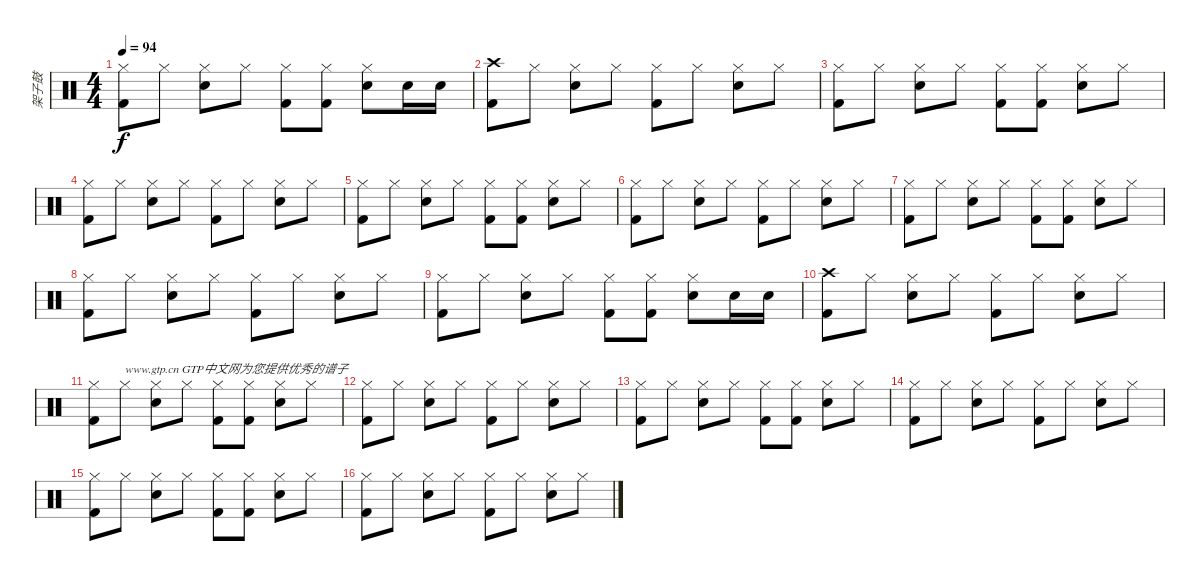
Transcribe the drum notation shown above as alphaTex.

\track ("架子鼓" "架子鼓") {instrument percussion}
\staff {score}
\articulation defaults
\ts (4 4)
\tempo 94
\clef neutral
\ks c
("Kick (hit) 2" "Hi-Hat (closed)").8{dy f} "Hi-Hat (closed)".8 ("Hi-Hat (closed)" "Electric Snare (hit)").8 "Hi-Hat (closed)".8 ("Kick (hit) 2" "Hi-Hat (closed)").8 ("Kick (hit) 2" "Hi-Hat (closed)").8 ("Hi-Hat (closed)" "Electric Snare (hit)").8 "Electric Snare (hit)".16 "Electric Snare (hit)".16 |
("Kick (hit) 2" "Crash high (hit)").8 "Hi-Hat (closed)".8 ("Hi-Hat (closed)" "Electric Snare (hit)").8 "Hi-Hat (closed)".8 ("Kick (hit) 2" "Hi-Hat (closed)").8 "Hi-Hat (closed)".8 ("Hi-Hat (closed)" "Electric Snare (hit)").8 "Hi-Hat (closed)".8 |
("Kick (hit) 2" "Hi-Hat (closed)").8 "Hi-Hat (closed)".8 ("Hi-Hat (closed)" "Electric Snare (hit)").8 "Hi-Hat (closed)".8 ("Kick (hit) 2" "Hi-Hat (closed)").8 ("Kick (hit) 2" "Hi-Hat (closed)").8 ("Hi-Hat (closed)" "Electric Snare (hit)").8 "Hi-Hat (closed)".8 |
("Kick (hit) 2" "Hi-Hat (closed)").8 "Hi-Hat (closed)".8 ("Hi-Hat (closed)" "Electric Snare (hit)").8 "Hi-Hat (closed)".8 ("Kick (hit) 2" "Hi-Hat (closed)").8 "Hi-Hat (closed)".8 ("Hi-Hat (closed)" "Electric Snare (hit)").8 "Hi-Hat (closed)".8 |
("Kick (hit) 2" "Hi-Hat (closed)").8 "Hi-Hat (closed)".8 ("Hi-Hat (closed)" "Electric Snare (hit)").8 "Hi-Hat (closed)".8 ("Kick (hit) 2" "Hi-Hat (closed)").8 ("Kick (hit) 2" "Hi-Hat (closed)").8 ("Hi-Hat (closed)" "Electric Snare (hit)").8 "Hi-Hat (closed)".8 |
("Kick (hit) 2" "Hi-Hat (closed)").8 "Hi-Hat (closed)".8 ("Hi-Hat (closed)" "Electric Snare (hit)").8 "Hi-Hat (closed)".8 ("Kick (hit) 2" "Hi-Hat (closed)").8 "Hi-Hat (closed)".8 ("Hi-Hat (closed)" "Electric Snare (hit)").8 "Hi-Hat (closed)".8 |
("Kick (hit) 2" "Hi-Hat (closed)").8 "Hi-Hat (closed)".8 ("Hi-Hat (closed)" "Electric Snare (hit)").8 "Hi-Hat (closed)".8 ("Kick (hit) 2" "Hi-Hat (closed)").8 ("Kick (hit) 2" "Hi-Hat (closed)").8 ("Hi-Hat (closed)" "Electric Snare (hit)").8 "Hi-Hat (closed)".8 |
("Kick (hit) 2" "Hi-Hat (closed)").8 "Hi-Hat (closed)".8 ("Hi-Hat (closed)" "Electric Snare (hit)").8 "Hi-Hat (closed)".8 ("Kick (hit) 2" "Hi-Hat (closed)").8 "Hi-Hat (closed)".8 ("Hi-Hat (closed)" "Electric Snare (hit)").8 "Hi-Hat (closed)".8 |
("Kick (hit) 2" "Hi-Hat (closed)").8 "Hi-Hat (closed)".8 ("Hi-Hat (closed)" "Electric Snare (hit)").8 "Hi-Hat (closed)".8 ("Kick (hit) 2" "Hi-Hat (closed)").8 ("Kick (hit) 2" "Hi-Hat (closed)").8 ("Hi-Hat (closed)" "Electric Snare (hit)").8 "Electric Snare (hit)".16 "Electric Snare (hit)".16 |
("Kick (hit) 2" "Crash high (hit)").8 "Hi-Hat (closed)".8 ("Hi-Hat (closed)" "Electric Snare (hit)").8 "Hi-Hat (closed)".8 ("Kick (hit) 2" "Hi-Hat (closed)").8 "Hi-Hat (closed)".8 ("Hi-Hat (closed)" "Electric Snare (hit)").8 "Hi-Hat (closed)".8 |
("Kick (hit) 2" "Hi-Hat (closed)").8 "Hi-Hat (closed)".8{txt "www.gtp.cn GTP中文网为您提供优秀的谱子"} ("Hi-Hat (closed)" "Electric Snare (hit)").8 "Hi-Hat (closed)".8 ("Kick (hit) 2" "Hi-Hat (closed)").8 ("Kick (hit) 2" "Hi-Hat (closed)").8 ("Hi-Hat (closed)" "Electric Snare (hit)").8 "Hi-Hat (closed)".8 |
("Kick (hit) 2" "Hi-Hat (closed)").8 "Hi-Hat (closed)".8 ("Hi-Hat (closed)" "Electric Snare (hit)").8 "Hi-Hat (closed)".8 ("Kick (hit) 2" "Hi-Hat (closed)").8 "Hi-Hat (closed)".8 ("Hi-Hat (closed)" "Electric Snare (hit)").8 "Hi-Hat (closed)".8 |
("Kick (hit) 2" "Hi-Hat (closed)").8 "Hi-Hat (closed)".8 ("Hi-Hat (closed)" "Electric Snare (hit)").8 "Hi-Hat (closed)".8 ("Kick (hit) 2" "Hi-Hat (closed)").8 ("Kick (hit) 2" "Hi-Hat (closed)").8 ("Hi-Hat (closed)" "Electric Snare (hit)").8 "Hi-Hat (closed)".8 |
("Kick (hit) 2" "Hi-Hat (closed)").8 "Hi-Hat (closed)".8 ("Hi-Hat (closed)" "Electric Snare (hit)").8 "Hi-Hat (closed)".8 ("Kick (hit) 2" "Hi-Hat (closed)").8 "Hi-Hat (closed)".8 ("Hi-Hat (closed)" "Electric Snare (hit)").8 "Hi-Hat (closed)".8 |
("Kick (hit) 2" "Hi-Hat (closed)").8 "Hi-Hat (closed)".8 ("Hi-Hat (closed)" "Electric Snare (hit)").8 "Hi-Hat (closed)".8 ("Kick (hit) 2" "Hi-Hat (closed)").8 ("Kick (hit) 2" "Hi-Hat (closed)").8 ("Hi-Hat (closed)" "Electric Snare (hit)").8 "Hi-Hat (closed)".8 |
("Kick (hit) 2" "Hi-Hat (closed)").8 "Hi-Hat (closed)".8 ("Hi-Hat (closed)" "Electric Snare (hit)").8 "Hi-Hat (closed)".8 ("Kick (hit) 2" "Hi-Hat (closed)").8 "Hi-Hat (closed)".8 ("Hi-Hat (closed)" "Electric Snare (hit)").8 "Hi-Hat (closed)".8
